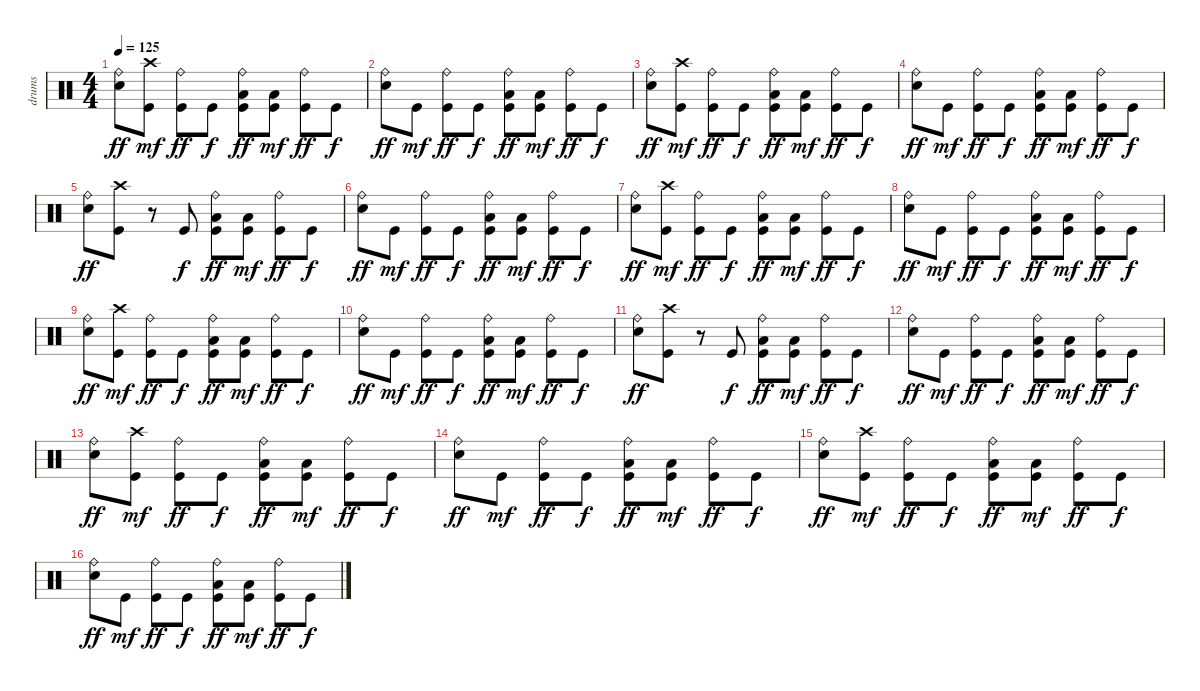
\track ("drums" "drums") {instrument percussion}
\staff {score}
\articulation defaults
\ts (4 4)
\tempo 125
\clef neutral
\ks c
("Electric Snare (hit)" "Ride (bell)").8{dy ff} ("Kick (hit)" "Crash high (hit)").8{dy mf} ("Kick (hit)" "Ride (bell)").8{dy ff} "Kick (hit)".8{dy f} ("Low Tom (hit)" "Kick (hit)" "Ride (bell)").8{dy ff} ("Low Tom (hit)" "Kick (hit)").8{dy mf} ("Kick (hit)" "Ride (bell)").8{dy ff} "Kick (hit)".8{dy f} |
("Electric Snare (hit)" "Ride (bell)").8{dy ff} "Kick (hit)".8{dy mf} ("Kick (hit)" "Ride (bell)").8{dy ff} "Kick (hit)".8{dy f} ("Low Tom (hit)" "Kick (hit)" "Ride (bell)").8{dy ff} ("Low Tom (hit)" "Kick (hit)").8{dy mf} ("Kick (hit)" "Ride (bell)").8{dy ff} "Kick (hit)".8{dy f} |
("Electric Snare (hit)" "Ride (bell)").8{dy ff} ("Kick (hit)" "Crash high (hit)").8{dy mf} ("Kick (hit)" "Ride (bell)").8{dy ff} "Kick (hit)".8{dy f} ("Low Tom (hit)" "Kick (hit)" "Ride (bell)").8{dy ff} ("Low Tom (hit)" "Kick (hit)").8{dy mf} ("Kick (hit)" "Ride (bell)").8{dy ff} "Kick (hit)".8{dy f} |
("Electric Snare (hit)" "Ride (bell)").8{dy ff} "Kick (hit)".8{dy mf} ("Kick (hit)" "Ride (bell)").8{dy ff} "Kick (hit)".8{dy f} ("Low Tom (hit)" "Kick (hit)" "Ride (bell)").8{dy ff} ("Low Tom (hit)" "Kick (hit)").8{dy mf} ("Kick (hit)" "Ride (bell)").8{dy ff} "Kick (hit)".8{dy f} |
("Electric Snare (hit)" "Ride (bell)").8{dy ff} ("Kick (hit)" "Crash high (hit)").8 r.8 "Kick (hit)".8{dy f} ("Low Tom (hit)" "Kick (hit)" "Ride (bell)").8{dy ff} ("Low Tom (hit)" "Kick (hit)").8{dy mf} ("Kick (hit)" "Ride (bell)").8{dy ff} "Kick (hit)".8{dy f} |
("Electric Snare (hit)" "Ride (bell)").8{dy ff} "Kick (hit)".8{dy mf} ("Kick (hit)" "Ride (bell)").8{dy ff} "Kick (hit)".8{dy f} ("Low Tom (hit)" "Kick (hit)" "Ride (bell)").8{dy ff} ("Low Tom (hit)" "Kick (hit)").8{dy mf} ("Kick (hit)" "Ride (bell)").8{dy ff} "Kick (hit)".8{dy f} |
("Electric Snare (hit)" "Ride (bell)").8{dy ff} ("Kick (hit)" "Crash high (hit)").8{dy mf} ("Kick (hit)" "Ride (bell)").8{dy ff} "Kick (hit)".8{dy f} ("Low Tom (hit)" "Kick (hit)" "Ride (bell)").8{dy ff} ("Low Tom (hit)" "Kick (hit)").8{dy mf} ("Kick (hit)" "Ride (bell)").8{dy ff} "Kick (hit)".8{dy f} |
("Electric Snare (hit)" "Ride (bell)").8{dy ff} "Kick (hit)".8{dy mf} ("Kick (hit)" "Ride (bell)").8{dy ff} "Kick (hit)".8{dy f} ("Low Tom (hit)" "Kick (hit)" "Ride (bell)").8{dy ff} ("Low Tom (hit)" "Kick (hit)").8{dy mf} ("Kick (hit)" "Ride (bell)").8{dy ff} "Kick (hit)".8{dy f} |
("Electric Snare (hit)" "Ride (bell)").8{dy ff} ("Kick (hit)" "Crash high (hit)").8{dy mf} ("Kick (hit)" "Ride (bell)").8{dy ff} "Kick (hit)".8{dy f} ("Low Tom (hit)" "Kick (hit)" "Ride (bell)").8{dy ff} ("Low Tom (hit)" "Kick (hit)").8{dy mf} ("Kick (hit)" "Ride (bell)").8{dy ff} "Kick (hit)".8{dy f} |
("Electric Snare (hit)" "Ride (bell)").8{dy ff} "Kick (hit)".8{dy mf} ("Kick (hit)" "Ride (bell)").8{dy ff} "Kick (hit)".8{dy f} ("Low Tom (hit)" "Kick (hit)" "Ride (bell)").8{dy ff} ("Low Tom (hit)" "Kick (hit)").8{dy mf} ("Kick (hit)" "Ride (bell)").8{dy ff} "Kick (hit)".8{dy f} |
("Electric Snare (hit)" "Ride (bell)").8{dy ff} ("Kick (hit)" "Crash high (hit)").8 r.8 "Kick (hit)".8{dy f} ("Low Tom (hit)" "Kick (hit)" "Ride (bell)").8{dy ff} ("Low Tom (hit)" "Kick (hit)").8{dy mf} ("Kick (hit)" "Ride (bell)").8{dy ff} "Kick (hit)".8{dy f} |
("Electric Snare (hit)" "Ride (bell)").8{dy ff} "Kick (hit)".8{dy mf} ("Kick (hit)" "Ride (bell)").8{dy ff} "Kick (hit)".8{dy f} ("Low Tom (hit)" "Kick (hit)" "Ride (bell)").8{dy ff} ("Low Tom (hit)" "Kick (hit)").8{dy mf} ("Kick (hit)" "Ride (bell)").8{dy ff} "Kick (hit)".8{dy f} |
("Electric Snare (hit)" "Ride (bell)").8{dy ff} ("Kick (hit)" "Crash high (hit)").8{dy mf} ("Kick (hit)" "Ride (bell)").8{dy ff} "Kick (hit)".8{dy f} ("Low Tom (hit)" "Kick (hit)" "Ride (bell)").8{dy ff} ("Low Tom (hit)" "Kick (hit)").8{dy mf} ("Kick (hit)" "Ride (bell)").8{dy ff} "Kick (hit)".8{dy f} |
("Electric Snare (hit)" "Ride (bell)").8{dy ff} "Kick (hit)".8{dy mf} ("Kick (hit)" "Ride (bell)").8{dy ff} "Kick (hit)".8{dy f} ("Low Tom (hit)" "Kick (hit)" "Ride (bell)").8{dy ff} ("Low Tom (hit)" "Kick (hit)").8{dy mf} ("Kick (hit)" "Ride (bell)").8{dy ff} "Kick (hit)".8{dy f} |
("Electric Snare (hit)" "Ride (bell)").8{dy ff} ("Kick (hit)" "Crash high (hit)").8{dy mf} ("Kick (hit)" "Ride (bell)").8{dy ff} "Kick (hit)".8{dy f} ("Low Tom (hit)" "Kick (hit)" "Ride (bell)").8{dy ff} ("Low Tom (hit)" "Kick (hit)").8{dy mf} ("Kick (hit)" "Ride (bell)").8{dy ff} "Kick (hit)".8{dy f} |
("Electric Snare (hit)" "Ride (bell)").8{dy ff} "Kick (hit)".8{dy mf} ("Kick (hit)" "Ride (bell)").8{dy ff} "Kick (hit)".8{dy f} ("Low Tom (hit)" "Kick (hit)" "Ride (bell)").8{dy ff} ("Low Tom (hit)" "Kick (hit)").8{dy mf} ("Kick (hit)" "Ride (bell)").8{dy ff} "Kick (hit)".8{dy f}
